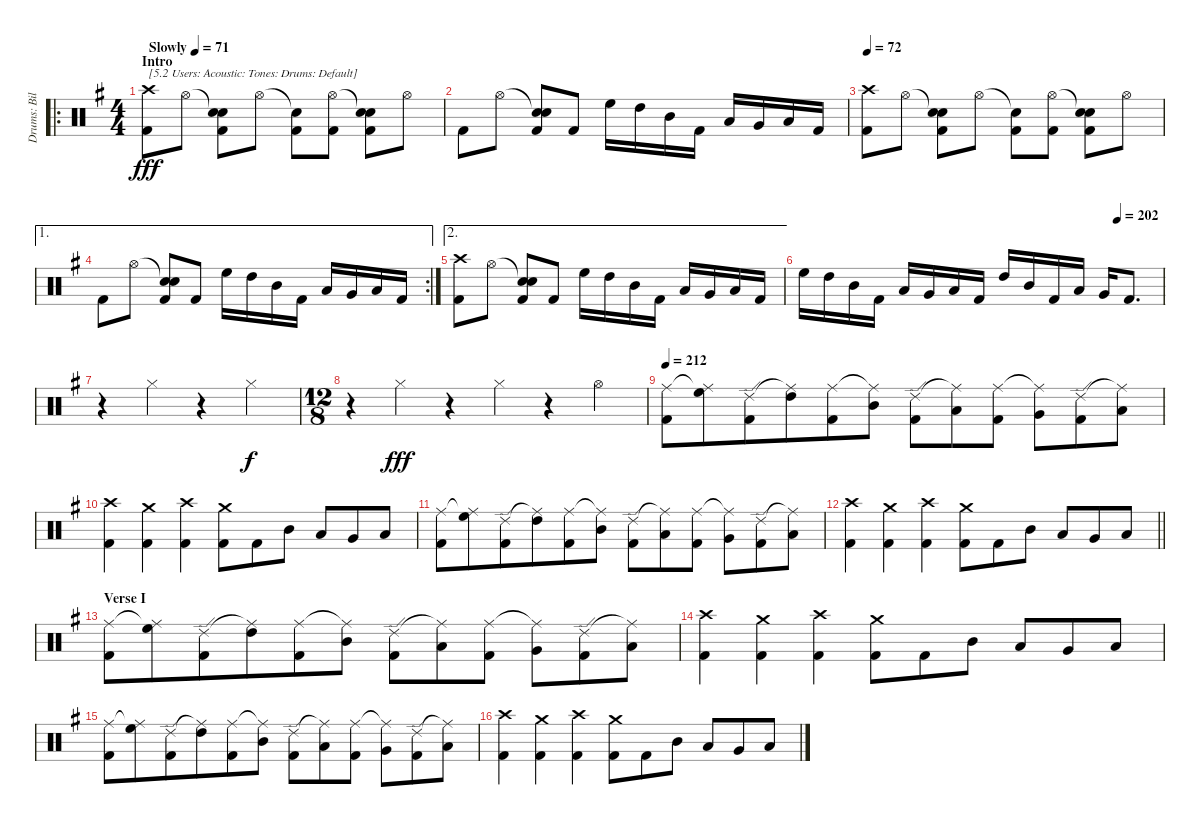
\track ("Drums: Bill" "Drums: Bil") {instrument percussion}
\staff {score}
\articulation defaults
\ro
\ts (4 4)
\section ("" "Intro")
\tempo (71 "Slowly")
\clef neutral
\ks g
("Crash high (hit)" "Kick (hit) 2").8{txt "[5.2 Users: Acoustic: Tones: Drums: Default]" dy fff} "Hi-Hat (open)".8 ("Snare (hit)"{t} "Electric Snare (hit)" "Kick (hit) 2").8 "Hi-Hat (open)".8 ("Snare (hit)"{t} "Kick (hit) 2").8 ("Hi-Hat (open)" "Kick (hit) 2").8 ("Snare (hit)"{t} "Electric Snare (hit)" "Kick (hit) 2").8 "Hi-Hat (open)".8 |
"Kick (hit) 2".8 "Hi-Hat (open)".8 ("Snare (hit)"{t} "Electric Snare (hit)" "Kick (hit) 2").8 "Kick (hit) 2".8 "High Floor Tom (hit)".16 "High Tom (hit)".16 "Mid Tom (hit)".16 "Kick (hit) 2".16 "Low Tom (hit)".16 "Very Low Tom (hit)".16 "Low Floor Tom (hit)".16 "Kick (hit) 2".16 |
\tempo 72
("Crash high (hit)" "Kick (hit) 2").8 "Hi-Hat (open)".8 ("Snare (hit)"{t} "Electric Snare (hit)" "Kick (hit) 2").8 "Hi-Hat (open)".8 ("Snare (hit)"{t} "Kick (hit) 2").8 ("Hi-Hat (open)" "Kick (hit) 2").8 ("Snare (hit)"{t} "Electric Snare (hit)" "Kick (hit) 2").8 "Hi-Hat (open)".8 |
\ae 1
\rc 2 "Kick (hit) 2".8 "Hi-Hat (open)".8
("Snare (hit)"{t} "Electric Snare (hit)" "Kick (hit) 2").8 "Kick (hit) 2".8 "High Floor Tom (hit)".16 "High Tom (hit)".16 "Mid Tom (hit)".16 "Kick (hit) 2".16 "Low Tom (hit)".16 "Very Low Tom (hit)".16 "Low Floor Tom (hit)".16 "Kick (hit) 2".16 |
\ae 2
("Crash high (hit)" "Kick (hit) 2").8 "Hi-Hat (open)".8 ("Snare (hit)"{t} "Electric Snare (hit)" "Kick (hit) 2").8 "Kick (hit) 2".8 "High Floor Tom (hit)".16 "High Tom (hit)".16 "Mid Tom (hit)".16 "Kick (hit) 2".16 "Low Tom (hit)".16 "Very Low Tom (hit)".16 "Low Floor Tom (hit)".16 "Kick (hit) 2".16 |
\tempo (202 0.875)
"High Floor Tom (hit)".16 "High Tom (hit)".16 "Mid Tom (hit)".16 "Kick (hit) 2".16 "Low Tom (hit)".16 "Very Low Tom (hit)".16 "Low Floor Tom (hit)".16 "Kick (hit) 2".16 "High Tom (hit)".16 "Mid Tom (hit)".16 "Kick (hit) 2".16 "Low Tom (hit)".16 "Very Low Tom (hit)".16 "Kick (hit) 2".8{d} |
r.4 "Hi-Hat (closed)".4 r.4 "Hi-Hat (closed)".4{dy f} |
\ts (12 8)
r.4 "Hi-Hat (closed)".4{dy fff} r.4 "Hi-Hat (closed)".4 r.4 "Hi-Hat (open)".4 |
\tempo 212
("Ride (middle)" "Kick (hit) 2").8 ("Ride (middle)"{t} "High Floor Tom (hit)").8 ("Ride (edge) 2" "Kick (hit) 2").8{beam merge} ("Ride (middle)"{t} "High Tom (hit)").8 ("Ride (middle)" "Kick (hit) 2").8 ("Ride (middle)"{t} "Mid Tom (hit)").8 ("Ride (edge) 2" "Kick (hit) 2").8{beam merge} ("Ride (middle)"{t} "Low Tom (hit)").8 ("Ride (middle)" "Kick (hit) 2").8 ("Ride (middle)"{t} "Very Low Tom (hit)").8 ("Ride (edge) 2" "Kick (hit) 2").8{beam merge} ("Ride (middle)"{t} "Low Floor Tom (hit)").8 |
("Crash high (hit)" "Kick (hit) 2").4 ("Crash medium (hit)" "Kick (hit) 2").4 ("Crash high (hit)" "Kick (hit) 2").4 ("Crash medium (hit)" "Kick (hit) 2").8 "Kick (hit) 2".8 "Mid Tom (hit)".8 "Low Tom (hit)".8 "Very Low Tom (hit)".8 "Low Floor Tom (hit)".8 |
("Ride (middle)" "Kick (hit) 2").8 ("Ride (middle)"{t} "High Floor Tom (hit)").8 ("Ride (edge) 2" "Kick (hit) 2").8{beam merge} ("Ride (middle)"{t} "High Tom (hit)").8 ("Ride (middle)" "Kick (hit) 2").8 ("Ride (middle)"{t} "Mid Tom (hit)").8 ("Ride (edge) 2" "Kick (hit) 2").8{beam merge} ("Ride (middle)"{t} "Low Tom (hit)").8 ("Ride (middle)" "Kick (hit) 2").8 ("Ride (middle)"{t} "Very Low Tom (hit)").8 ("Ride (edge) 2" "Kick (hit) 2").8{beam merge} ("Ride (middle)"{t} "Low Floor Tom (hit)").8 |
\barLineRight lightlight
("Crash high (hit)" "Kick (hit) 2").4 ("Crash medium (hit)" "Kick (hit) 2").4 ("Crash high (hit)" "Kick (hit) 2").4 ("Crash medium (hit)" "Kick (hit) 2").8 "Kick (hit) 2".8 "Mid Tom (hit)".8 "Low Tom (hit)".8 "Very Low Tom (hit)".8 "Low Floor Tom (hit)".8 |
\section ("" "Verse I")
("Ride (middle)" "Kick (hit) 2").8 ("Ride (middle)"{t} "High Floor Tom (hit)").8 ("Ride (edge) 2" "Kick (hit) 2").8{beam merge} ("Ride (middle)"{t} "High Tom (hit)").8 ("Ride (middle)" "Kick (hit) 2").8 ("Ride (middle)"{t} "Mid Tom (hit)").8 ("Ride (edge) 2" "Kick (hit) 2").8{beam merge} ("Ride (middle)"{t} "Low Tom (hit)").8 ("Ride (middle)" "Kick (hit) 2").8 ("Ride (middle)"{t} "Very Low Tom (hit)").8 ("Ride (edge) 2" "Kick (hit) 2").8{beam merge} ("Ride (middle)"{t} "Low Floor Tom (hit)").8 |
("Crash high (hit)" "Kick (hit) 2").4 ("Crash medium (hit)" "Kick (hit) 2").4 ("Crash high (hit)" "Kick (hit) 2").4 ("Crash medium (hit)" "Kick (hit) 2").8 "Kick (hit) 2".8 "Mid Tom (hit)".8 "Low Tom (hit)".8 "Very Low Tom (hit)".8 "Low Floor Tom (hit)".8 |
("Ride (middle)" "Kick (hit) 2").8 ("Ride (middle)"{t} "High Floor Tom (hit)").8 ("Ride (edge) 2" "Kick (hit) 2").8{beam merge} ("Ride (middle)"{t} "High Tom (hit)").8 ("Ride (middle)" "Kick (hit) 2").8 ("Ride (middle)"{t} "Mid Tom (hit)").8 ("Ride (edge) 2" "Kick (hit) 2").8{beam merge} ("Ride (middle)"{t} "Low Tom (hit)").8 ("Ride (middle)" "Kick (hit) 2").8 ("Ride (middle)"{t} "Very Low Tom (hit)").8 ("Ride (edge) 2" "Kick (hit) 2").8{beam merge} ("Ride (middle)"{t} "Low Floor Tom (hit)").8 |
("Crash high (hit)" "Kick (hit) 2").4 ("Crash medium (hit)" "Kick (hit) 2").4 ("Crash high (hit)" "Kick (hit) 2").4 ("Crash medium (hit)" "Kick (hit) 2").8 "Kick (hit) 2".8 "Mid Tom (hit)".8 "Low Tom (hit)".8 "Very Low Tom (hit)".8 "Low Floor Tom (hit)".8
